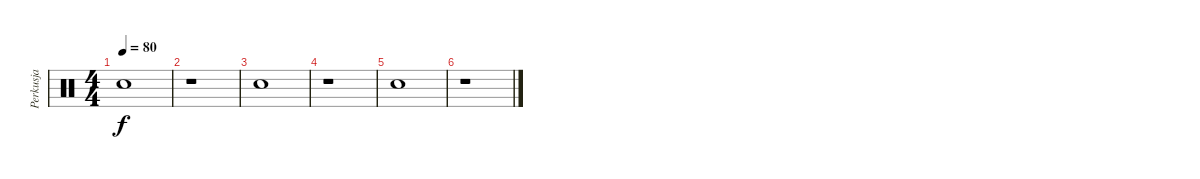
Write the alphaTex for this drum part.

\track ("Perkusja" "Perkusja") {instrument percussion}
\staff {score}
\articulation defaults
\ts (4 4)
\tempo 80
\clef neutral
\ks c "Electric Snare (hit)".1{dy f}
|
r.1 |
"Electric Snare (hit)".1 |
r.1 |
"Electric Snare (hit)".1 |
r.1
